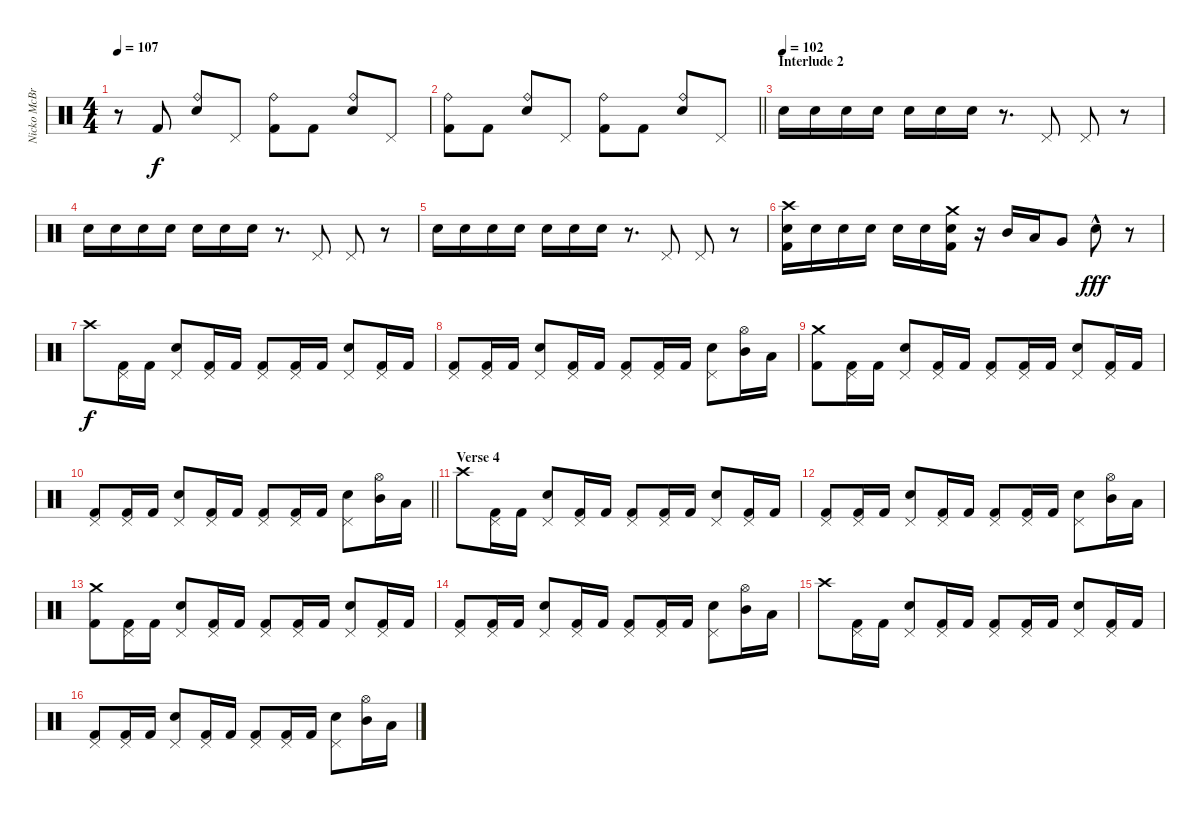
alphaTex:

\track ("Nicko McBrain" "Nicko McBr") {instrument percussion}
\staff {score}
\articulation defaults
\ts (4 4)
\tempo 107
\clef neutral
\ks c
r.8{dy f} "Kick (hit) 2".8 ("Ride (bell)" "Electric Snare (hit)").8 "Pedal Hi-Hat (hit)".8 ("Ride (bell)" "Kick (hit) 2").8 "Kick (hit) 2".8 ("Ride (bell)" "Electric Snare (hit)").8 "Pedal Hi-Hat (hit)".8 |
\barLineRight lightlight
("Ride (bell)" "Kick (hit) 2").8 "Kick (hit) 2".8 ("Ride (bell)" "Electric Snare (hit)").8 "Pedal Hi-Hat (hit)".8 ("Ride (bell)" "Kick (hit) 2").8 "Kick (hit) 2".8 ("Ride (bell)" "Electric Snare (hit)").8 "Pedal Hi-Hat (hit)".8 |
\section ("" "Interlude 2")
\tempo (102)
"Electric Snare (hit)".16 "Electric Snare (hit)".16 "Electric Snare (hit)".16 "Electric Snare (hit)".16 "Electric Snare (hit)".16 "Electric Snare (hit)".16 "Electric Snare (hit)".16 r.8{d} "Pedal Hi-Hat (hit)".8 "Pedal Hi-Hat (hit)".8 r.8 |
"Electric Snare (hit)".16 "Electric Snare (hit)".16 "Electric Snare (hit)".16 "Electric Snare (hit)".16 "Electric Snare (hit)".16 "Electric Snare (hit)".16 "Electric Snare (hit)".16 r.8{d} "Pedal Hi-Hat (hit)".8 "Pedal Hi-Hat (hit)".8 r.8 |
"Electric Snare (hit)".16 "Electric Snare (hit)".16 "Electric Snare (hit)".16 "Electric Snare (hit)".16 "Electric Snare (hit)".16 "Electric Snare (hit)".16 "Electric Snare (hit)".16 r.8{d} "Pedal Hi-Hat (hit)".8 "Pedal Hi-Hat (hit)".8 r.8 |
("Crash high (hit)" "Electric Snare (hit)" "Kick (hit) 2").16 "Electric Snare (hit)".16 "Electric Snare (hit)".16 "Electric Snare (hit)".16 "Electric Snare (hit)".16 "Electric Snare (hit)".16 ("Crash medium (hit)" "Electric Snare (hit)" "Kick (hit) 2").16 r.16 "Mid Tom (hit)".16 "Low Tom (hit)".16 "Very Low Tom (hit)".8 "Electric Snare (hit)"{hac}.8{dy fff} r.8 |
"Crash high (hit)".8{dy f} ("Pedal Hi-Hat (hit)" "Kick (hit) 2").16 "Kick (hit) 2".16 ("Pedal Hi-Hat (hit)" "Electric Snare (hit)").8 ("Pedal Hi-Hat (hit)" "Kick (hit) 2").16 "Kick (hit) 2".16 ("Pedal Hi-Hat (hit)" "Kick (hit) 2").8 ("Pedal Hi-Hat (hit)" "Kick (hit) 2").16 "Kick (hit) 2".16 ("Pedal Hi-Hat (hit)" "Electric Snare (hit)").8 ("Pedal Hi-Hat (hit)" "Kick (hit) 2").16 "Kick (hit) 2".16 |
("Pedal Hi-Hat (hit)" "Kick (hit) 2").8 ("Pedal Hi-Hat (hit)" "Kick (hit) 2").16 "Kick (hit) 2".16 ("Pedal Hi-Hat (hit)" "Electric Snare (hit)").8 ("Pedal Hi-Hat (hit)" "Kick (hit) 2").16 "Kick (hit) 2".16 ("Pedal Hi-Hat (hit)" "Kick (hit) 2").8 ("Pedal Hi-Hat (hit)" "Kick (hit) 2").16 "Kick (hit) 2".16 ("Pedal Hi-Hat (hit)" "Electric Snare (hit)").8 ("Hi-Hat (open)" "Mid Tom (hit)").16 "Low Tom (hit)".16 |
("Crash medium (hit)" "Kick (hit) 2").8 ("Pedal Hi-Hat (hit)" "Kick (hit) 2").16 "Kick (hit) 2".16 ("Pedal Hi-Hat (hit)" "Electric Snare (hit)").8 ("Pedal Hi-Hat (hit)" "Kick (hit) 2").16 "Kick (hit) 2".16 ("Pedal Hi-Hat (hit)" "Kick (hit) 2").8 ("Pedal Hi-Hat (hit)" "Kick (hit) 2").16 "Kick (hit) 2".16 ("Pedal Hi-Hat (hit)" "Electric Snare (hit)").8 ("Pedal Hi-Hat (hit)" "Kick (hit) 2").16 "Kick (hit) 2".16 |
\barLineRight lightlight
("Pedal Hi-Hat (hit)" "Kick (hit) 2").8 ("Pedal Hi-Hat (hit)" "Kick (hit) 2").16 "Kick (hit) 2".16 ("Pedal Hi-Hat (hit)" "Electric Snare (hit)").8 ("Pedal Hi-Hat (hit)" "Kick (hit) 2").16 "Kick (hit) 2".16 ("Pedal Hi-Hat (hit)" "Kick (hit) 2").8 ("Pedal Hi-Hat (hit)" "Kick (hit) 2").16 "Kick (hit) 2".16 ("Pedal Hi-Hat (hit)" "Electric Snare (hit)").8 ("Hi-Hat (open)" "Mid Tom (hit)").16 "Low Tom (hit)".16 |
\section ("" "Verse 4")
"Crash high (hit)".8 ("Pedal Hi-Hat (hit)" "Kick (hit) 2").16 "Kick (hit) 2".16 ("Pedal Hi-Hat (hit)" "Electric Snare (hit)").8 ("Pedal Hi-Hat (hit)" "Kick (hit) 2").16 "Kick (hit) 2".16 ("Pedal Hi-Hat (hit)" "Kick (hit) 2").8 ("Pedal Hi-Hat (hit)" "Kick (hit) 2").16 "Kick (hit) 2".16 ("Pedal Hi-Hat (hit)" "Electric Snare (hit)").8 ("Pedal Hi-Hat (hit)" "Kick (hit) 2").16 "Kick (hit) 2".16 |
("Pedal Hi-Hat (hit)" "Kick (hit) 2").8 ("Pedal Hi-Hat (hit)" "Kick (hit) 2").16 "Kick (hit) 2".16 ("Pedal Hi-Hat (hit)" "Electric Snare (hit)").8 ("Pedal Hi-Hat (hit)" "Kick (hit) 2").16 "Kick (hit) 2".16 ("Pedal Hi-Hat (hit)" "Kick (hit) 2").8 ("Pedal Hi-Hat (hit)" "Kick (hit) 2").16 "Kick (hit) 2".16 ("Pedal Hi-Hat (hit)" "Electric Snare (hit)").8 ("Hi-Hat (open)" "Mid Tom (hit)").16 "Low Tom (hit)".16 |
("Crash medium (hit)" "Kick (hit) 2").8 ("Pedal Hi-Hat (hit)" "Kick (hit) 2").16 "Kick (hit) 2".16 ("Pedal Hi-Hat (hit)" "Electric Snare (hit)").8 ("Pedal Hi-Hat (hit)" "Kick (hit) 2").16 "Kick (hit) 2".16 ("Pedal Hi-Hat (hit)" "Kick (hit) 2").8 ("Pedal Hi-Hat (hit)" "Kick (hit) 2").16 "Kick (hit) 2".16 ("Pedal Hi-Hat (hit)" "Electric Snare (hit)").8 ("Pedal Hi-Hat (hit)" "Kick (hit) 2").16 "Kick (hit) 2".16 |
("Pedal Hi-Hat (hit)" "Kick (hit) 2").8 ("Pedal Hi-Hat (hit)" "Kick (hit) 2").16 "Kick (hit) 2".16 ("Pedal Hi-Hat (hit)" "Electric Snare (hit)").8 ("Pedal Hi-Hat (hit)" "Kick (hit) 2").16 "Kick (hit) 2".16 ("Pedal Hi-Hat (hit)" "Kick (hit) 2").8 ("Pedal Hi-Hat (hit)" "Kick (hit) 2").16 "Kick (hit) 2".16 ("Pedal Hi-Hat (hit)" "Electric Snare (hit)").8 ("Hi-Hat (open)" "Mid Tom (hit)").16 "Low Tom (hit)".16 |
"Crash high (hit)".8 ("Pedal Hi-Hat (hit)" "Kick (hit) 2").16 "Kick (hit) 2".16 ("Pedal Hi-Hat (hit)" "Electric Snare (hit)").8 ("Pedal Hi-Hat (hit)" "Kick (hit) 2").16 "Kick (hit) 2".16 ("Pedal Hi-Hat (hit)" "Kick (hit) 2").8 ("Pedal Hi-Hat (hit)" "Kick (hit) 2").16 "Kick (hit) 2".16 ("Pedal Hi-Hat (hit)" "Electric Snare (hit)").8 ("Pedal Hi-Hat (hit)" "Kick (hit) 2").16 "Kick (hit) 2".16 |
("Pedal Hi-Hat (hit)" "Kick (hit) 2").8 ("Pedal Hi-Hat (hit)" "Kick (hit) 2").16 "Kick (hit) 2".16 ("Pedal Hi-Hat (hit)" "Electric Snare (hit)").8 ("Pedal Hi-Hat (hit)" "Kick (hit) 2").16 "Kick (hit) 2".16 ("Pedal Hi-Hat (hit)" "Kick (hit) 2").8 ("Pedal Hi-Hat (hit)" "Kick (hit) 2").16 "Kick (hit) 2".16 ("Pedal Hi-Hat (hit)" "Electric Snare (hit)").8 ("Hi-Hat (open)" "Mid Tom (hit)").16 "Low Tom (hit)".16
